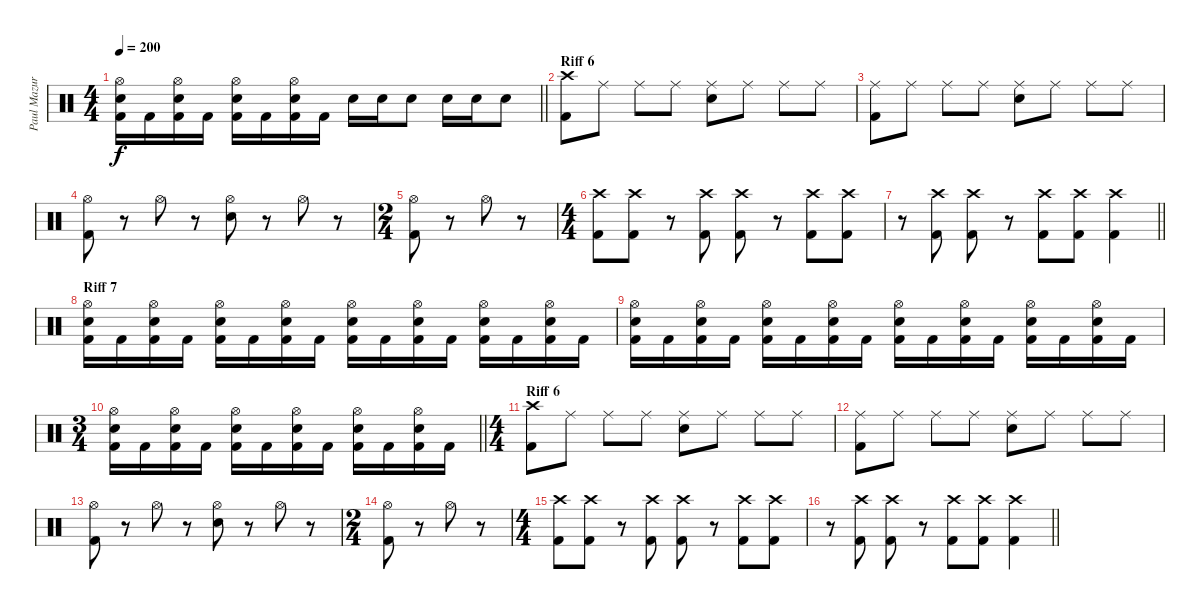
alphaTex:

\track ("Paul Mazurkiewicz" "Paul Mazur") {instrument percussion}
\staff {score}
\articulation defaults
\ts (4 4)
\tempo 200
\clef neutral
\barLineRight lightlight
\ks c
("Hi-Hat (open)" "Electric Snare (hit)" "Kick (hit) 2").16{dy f} "Kick (hit) 2".16 ("Hi-Hat (open)" "Electric Snare (hit)" "Kick (hit) 2").16 "Kick (hit) 2".16 ("Hi-Hat (open)" "Electric Snare (hit)" "Kick (hit) 2").16 "Kick (hit) 2".16 ("Hi-Hat (open)" "Electric Snare (hit)" "Kick (hit) 2").16 "Kick (hit) 2".16 "Electric Snare (hit)".16 "Electric Snare (hit)".16 "Electric Snare (hit)".8 "Electric Snare (hit)".16 "Electric Snare (hit)".16 "Electric Snare (hit)".8 |
\section ("" "Riff 6")
("Crash high (hit)" "Kick (hit) 2").8 "Ride (middle)".8 "Ride (middle)".8 "Ride (middle)".8 ("Ride (middle)" "Electric Snare (hit)").8 "Ride (middle)".8 "Ride (middle)".8 "Ride (middle)".8 |
("Ride (middle)" "Kick (hit) 2").8 "Ride (middle)".8 "Ride (middle)".8 "Ride (middle)".8 ("Ride (middle)" "Electric Snare (hit)").8 "Ride (middle)".8 "Ride (middle)".8 "Ride (middle)".8 |
("Hi-Hat (open)" "Kick (hit) 2").8 r.8 "Hi-Hat (open)".8 r.8 ("Hi-Hat (open)" "Electric Snare (hit)").8 r.8 "Hi-Hat (open)".8 r.8 |
\ts (2 4)
("Hi-Hat (open)" "Kick (hit) 2").8 r.8 "Hi-Hat (open)".8 r.8 |
\ts (4 4)
("Crash high (hit)" "Kick (hit) 2").8 ("Crash high (hit)" "Kick (hit) 2").8 r.8 ("Crash high (hit)" "Kick (hit) 2").8 ("Crash high (hit)" "Kick (hit) 2").8 r.8 ("Crash high (hit)" "Kick (hit) 2").8 ("Crash high (hit)" "Kick (hit) 2").8 |
\barLineRight lightlight
r.8 ("Crash high (hit)" "Kick (hit) 2").8 ("Crash high (hit)" "Kick (hit) 2").8 r.8 ("Crash high (hit)" "Kick (hit) 2").8 ("Crash high (hit)" "Kick (hit) 2").8 ("Crash high (hit)" "Kick (hit) 2").4 |
\section ("" "Riff 7")
("Hi-Hat (open)" "Electric Snare (hit)" "Kick (hit) 2").16 "Kick (hit) 2".16 ("Hi-Hat (open)" "Electric Snare (hit)" "Kick (hit) 2").16 "Kick (hit) 2".16 ("Hi-Hat (open)" "Electric Snare (hit)" "Kick (hit) 2").16 "Kick (hit) 2".16 ("Hi-Hat (open)" "Electric Snare (hit)" "Kick (hit) 2").16 "Kick (hit) 2".16 ("Hi-Hat (open)" "Electric Snare (hit)" "Kick (hit) 2").16 "Kick (hit) 2".16 ("Hi-Hat (open)" "Electric Snare (hit)" "Kick (hit) 2").16 "Kick (hit) 2".16 ("Hi-Hat (open)" "Electric Snare (hit)" "Kick (hit) 2").16 "Kick (hit) 2".16 ("Hi-Hat (open)" "Electric Snare (hit)" "Kick (hit) 2").16 "Kick (hit) 2".16 |
("Hi-Hat (open)" "Electric Snare (hit)" "Kick (hit) 2").16 "Kick (hit) 2".16 ("Hi-Hat (open)" "Electric Snare (hit)" "Kick (hit) 2").16 "Kick (hit) 2".16 ("Hi-Hat (open)" "Electric Snare (hit)" "Kick (hit) 2").16 "Kick (hit) 2".16 ("Hi-Hat (open)" "Electric Snare (hit)" "Kick (hit) 2").16 "Kick (hit) 2".16 ("Hi-Hat (open)" "Electric Snare (hit)" "Kick (hit) 2").16 "Kick (hit) 2".16 ("Hi-Hat (open)" "Electric Snare (hit)" "Kick (hit) 2").16 "Kick (hit) 2".16 ("Hi-Hat (open)" "Electric Snare (hit)" "Kick (hit) 2").16 "Kick (hit) 2".16 ("Hi-Hat (open)" "Electric Snare (hit)" "Kick (hit) 2").16 "Kick (hit) 2".16 |
\ts (3 4)
\barLineRight lightlight
("Hi-Hat (open)" "Electric Snare (hit)" "Kick (hit) 2").16 "Kick (hit) 2".16 ("Hi-Hat (open)" "Electric Snare (hit)" "Kick (hit) 2").16 "Kick (hit) 2".16 ("Hi-Hat (open)" "Electric Snare (hit)" "Kick (hit) 2").16 "Kick (hit) 2".16 ("Hi-Hat (open)" "Electric Snare (hit)" "Kick (hit) 2").16 "Kick (hit) 2".16 ("Hi-Hat (open)" "Electric Snare (hit)" "Kick (hit) 2").16 "Kick (hit) 2".16 ("Hi-Hat (open)" "Electric Snare (hit)" "Kick (hit) 2").16 "Kick (hit) 2".16 |
\ts (4 4)
\section ("" "Riff 6")
("Crash high (hit)" "Kick (hit) 2").8 "Ride (middle)".8 "Ride (middle)".8 "Ride (middle)".8 ("Ride (middle)" "Electric Snare (hit)").8 "Ride (middle)".8 "Ride (middle)".8 "Ride (middle)".8 |
("Ride (middle)" "Kick (hit) 2").8 "Ride (middle)".8 "Ride (middle)".8 "Ride (middle)".8 ("Ride (middle)" "Electric Snare (hit)").8 "Ride (middle)".8 "Ride (middle)".8 "Ride (middle)".8 |
("Hi-Hat (open)" "Kick (hit) 2").8 r.8 "Hi-Hat (open)".8 r.8 ("Hi-Hat (open)" "Electric Snare (hit)").8 r.8 "Hi-Hat (open)".8 r.8 |
\ts (2 4)
("Hi-Hat (open)" "Kick (hit) 2").8 r.8 "Hi-Hat (open)".8 r.8 |
\ts (4 4)
("Crash high (hit)" "Kick (hit) 2").8 ("Crash high (hit)" "Kick (hit) 2").8 r.8 ("Crash high (hit)" "Kick (hit) 2").8 ("Crash high (hit)" "Kick (hit) 2").8 r.8 ("Crash high (hit)" "Kick (hit) 2").8 ("Crash high (hit)" "Kick (hit) 2").8 |
\barLineRight lightlight
r.8 ("Crash high (hit)" "Kick (hit) 2").8 ("Crash high (hit)" "Kick (hit) 2").8 r.8 ("Crash high (hit)" "Kick (hit) 2").8 ("Crash high (hit)" "Kick (hit) 2").8 ("Crash high (hit)" "Kick (hit) 2").4
